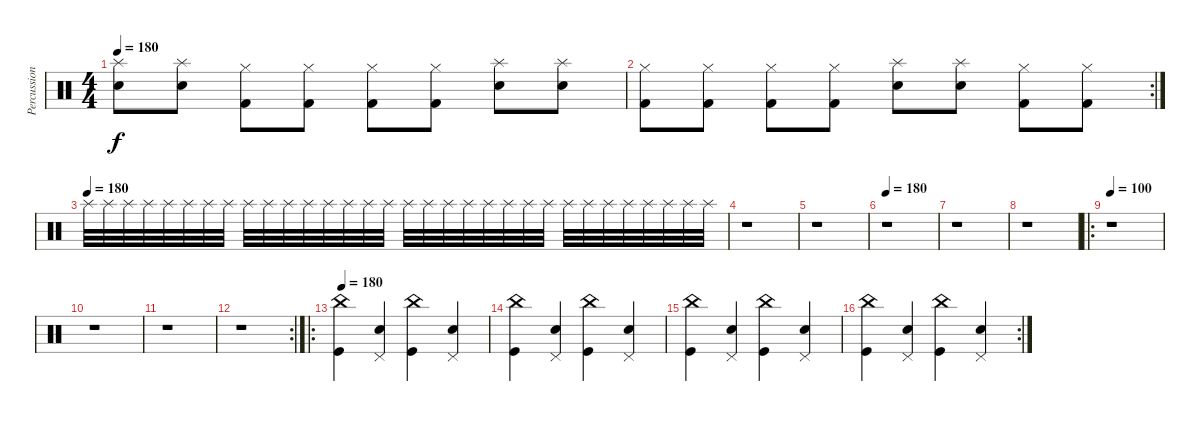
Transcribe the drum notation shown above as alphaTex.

\track ("Percussion" "Percussion") {instrument percussion}
\staff {score}
\articulation defaults
\ts (4 4)
\tempo 180
\clef neutral
\ks c
("Splash (hit)" "Electric Snare (hit)").8{dy f} ("Splash (hit)" "Electric Snare (hit)").8 ("Hi-Hat (closed)" "Kick (hit) 2").8 ("Hi-Hat (closed)" "Kick (hit) 2").8 ("Hi-Hat (closed)" "Kick (hit) 2").8 ("Hi-Hat (closed)" "Kick (hit) 2").8 ("Splash (hit)" "Electric Snare (hit)").8 ("Splash (hit)" "Electric Snare (hit)").8 |
\rc 2
("Hi-Hat (closed)" "Kick (hit) 2").8 ("Hi-Hat (closed)" "Kick (hit) 2").8 ("Hi-Hat (closed)" "Kick (hit) 2").8 ("Hi-Hat (closed)" "Kick (hit) 2").8 ("Splash (hit)" "Electric Snare (hit)").8 ("Splash (hit)" "Electric Snare (hit)").8 ("Hi-Hat (closed)" "Kick (hit) 2").8 ("Hi-Hat (closed)" "Kick (hit) 2").8 |
\tempo (180)
"Splash (hit)".32 "Splash (hit)".32 "Splash (hit)".32 "Splash (hit)".32 "Splash (hit)".32 "Splash (hit)".32 "Splash (hit)".32 "Splash (hit)".32 "Splash (hit)".32 "Splash (hit)".32 "Splash (hit)".32 "Splash (hit)".32 "Splash (hit)".32 "Splash (hit)".32 "Splash (hit)".32 "Splash (hit)".32 "Splash (hit)".32 "Splash (hit)".32 "Splash (hit)".32 "Splash (hit)".32 "Splash (hit)".32 "Splash (hit)".32 "Splash (hit)".32 "Splash (hit)".32 "Splash (hit)".32 "Splash (hit)".32 "Splash (hit)".32 "Splash (hit)".32 "Splash (hit)".32 "Splash (hit)".32 "Splash (hit)".32 "Splash (hit)".32 |
r.1 |
r.1 |
\tempo 180
r.1 |
r.1 |
r.1 |
\ro
\tempo 100
r.1 |
r.1 |
r.1 |
\rc 2
r.1 |
\ro
\tempo 180
("China (hit)" "Kick (hit)").4 ("Pedal Hi-Hat (hit)" "Electric Snare (hit)").4 ("China (hit)" "Kick (hit)").4 ("Pedal Hi-Hat (hit)" "Electric Snare (hit)").4 |
("China (hit)" "Kick (hit)").4 ("Pedal Hi-Hat (hit)" "Electric Snare (hit)").4 ("China (hit)" "Kick (hit)").4 ("Pedal Hi-Hat (hit)" "Electric Snare (hit)").4 |
("China (hit)" "Kick (hit)").4 ("Pedal Hi-Hat (hit)" "Electric Snare (hit)").4 ("China (hit)" "Kick (hit)").4 ("Pedal Hi-Hat (hit)" "Electric Snare (hit)").4 |
\rc 2
("China (hit)" "Kick (hit)").4 ("Pedal Hi-Hat (hit)" "Electric Snare (hit)").4 ("China (hit)" "Kick (hit)").4 ("Pedal Hi-Hat (hit)" "Electric Snare (hit)").4
